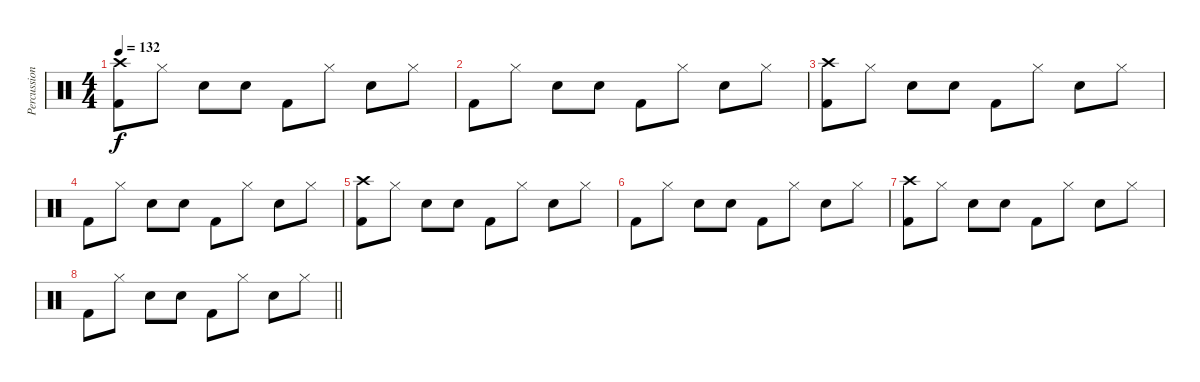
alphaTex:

\track ("Percussions" "Percussion") {instrument percussion}
\staff {score}
\articulation defaults
\ts (4 4)
\tempo 132
\clef neutral
\ks c
("Kick (hit) 2" "Crash high (hit)").8{dy f} "Hi-Hat (closed)".8 "Snare (hit) 2".8 "Snare (hit) 2".8 "Kick (hit) 2".8 "Hi-Hat (closed)".8 "Snare (hit) 2".8 "Hi-Hat (closed)".8 |
"Kick (hit) 2".8 "Hi-Hat (closed)".8 "Snare (hit) 2".8 "Snare (hit) 2".8 "Kick (hit) 2".8 "Hi-Hat (closed)".8 "Snare (hit) 2".8 "Hi-Hat (closed)".8 |
("Kick (hit) 2" "Crash high (hit)").8 "Hi-Hat (closed)".8 "Snare (hit) 2".8 "Snare (hit) 2".8 "Kick (hit) 2".8 "Hi-Hat (closed)".8 "Snare (hit) 2".8 "Hi-Hat (closed)".8 |
"Kick (hit) 2".8 "Hi-Hat (closed)".8 "Snare (hit) 2".8 "Snare (hit) 2".8 "Kick (hit) 2".8 "Hi-Hat (closed)".8 "Snare (hit) 2".8 "Hi-Hat (closed)".8 |
("Kick (hit) 2" "Crash high (hit)").8 "Hi-Hat (closed)".8 "Snare (hit) 2".8 "Snare (hit) 2".8 "Kick (hit) 2".8 "Hi-Hat (closed)".8 "Snare (hit) 2".8 "Hi-Hat (closed)".8 |
"Kick (hit) 2".8 "Hi-Hat (closed)".8 "Snare (hit) 2".8 "Snare (hit) 2".8 "Kick (hit) 2".8 "Hi-Hat (closed)".8 "Snare (hit) 2".8 "Hi-Hat (closed)".8 |
("Kick (hit) 2" "Crash high (hit)").8 "Hi-Hat (closed)".8 "Snare (hit) 2".8 "Snare (hit) 2".8 "Kick (hit) 2".8 "Hi-Hat (closed)".8 "Snare (hit) 2".8 "Hi-Hat (closed)".8 |
\barLineRight lightlight "Kick (hit) 2".8 "Hi-Hat (closed)".8 "Snare (hit) 2".8 "Snare (hit) 2".8 "Kick (hit) 2".8 "Hi-Hat (closed)".8 "Snare (hit) 2".8 "Hi-Hat (closed)".8
